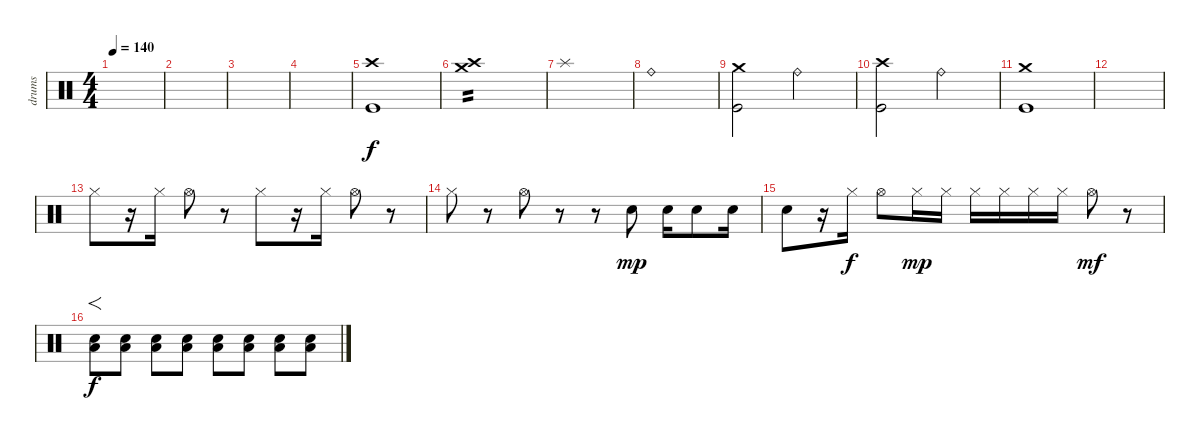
\track ("drums" "drums") {instrument percussion}
\staff {score}
\articulation defaults
\ts (4 4)
\tempo 140
\clef neutral
\ks c
|
|
|
|
("Crash high (hit)" "Kick (hit)").1 |
("Crash high (hit)" "Crash medium (hit)").1{tp 2} |
"Splash (hit)".1 |
"Ride (bell)".1 |
("Kick (hit)" "Crash medium (hit)").2 "Ride (bell)".2 |
("Kick (hit)" "Crash high (hit)").2 "Ride (bell)".2 |
("Kick (hit)" "Crash medium (hit)").1 |
|
"Hi-Hat (closed)".8 r.16 "Hi-Hat (closed)".16 "Hi-Hat (open)".8 r.8 "Hi-Hat (closed)".8 r.16 "Hi-Hat (closed)".16 "Hi-Hat (open)".8 r.8 |
"Hi-Hat (closed)".8 r.8 "Hi-Hat (open)".8 r.8 r.8 "Snare (hit) 2".8{dy mp} "Snare (hit) 2".16 "Snare (hit) 2".8 "Snare (hit) 2".16 |
"Snare (hit) 2".8 r.16 "Hi-Hat (closed)".16{dy f} "Hi-Hat (open)".8 "Hi-Hat (closed)".16{dy mp} "Hi-Hat (closed)".16 "Hi-Hat (closed)".16 "Hi-Hat (closed)".16 "Hi-Hat (closed)".16 "Hi-Hat (closed)".16 "Hi-Hat (open)".8{dy mf} r.8 |
("Snare (hit) 2" "Low Floor Tom (hit)").8{f dy f volume 8} ("Snare (hit) 2" "Low Floor Tom (hit)").8 ("Snare (hit) 2" "Low Floor Tom (hit)").8 ("Snare (hit) 2" "Low Floor Tom (hit)").8{volume 10} ("Snare (hit) 2" "Low Floor Tom (hit)").8 ("Snare (hit) 2" "Low Floor Tom (hit)").8 ("Snare (hit) 2" "Low Floor Tom (hit)").8 ("Snare (hit) 2" "Low Floor Tom (hit)").8
